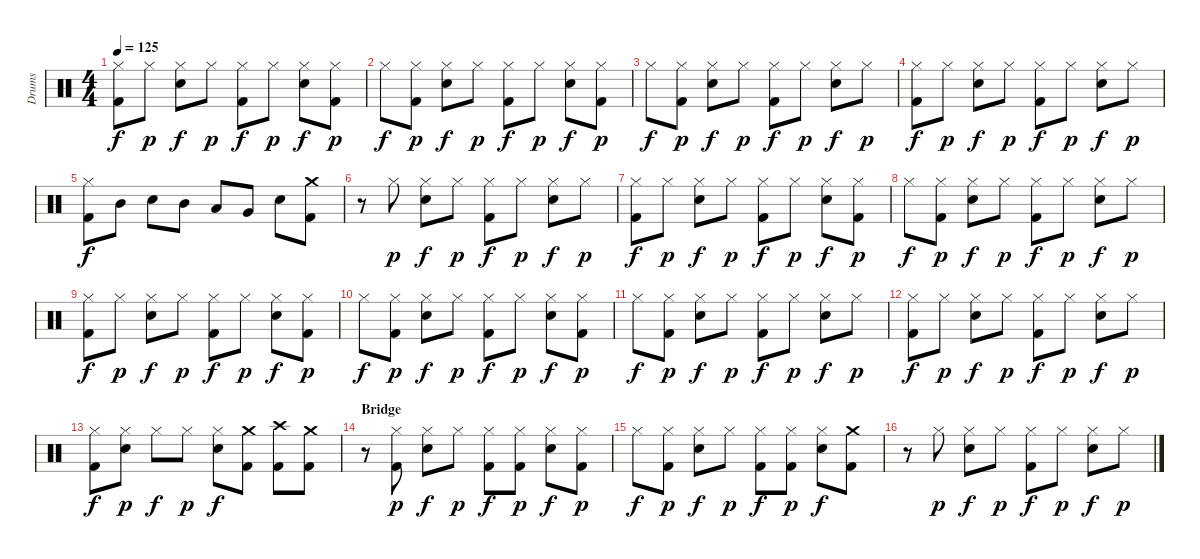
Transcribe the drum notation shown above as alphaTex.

\track ("Drums" "Drums") {instrument percussion}
\staff {score}
\articulation defaults
\ts (4 4)
\tempo 125
\clef neutral
\ks c
("Hi-Hat (closed)" "Kick (hit) 2").8{dy f} "Hi-Hat (closed)".8{dy p} ("Hi-Hat (closed)" "Snare (hit) 2").8{dy f} "Hi-Hat (closed)".8{dy p} ("Hi-Hat (closed)" "Kick (hit) 2").8{dy f} "Hi-Hat (closed)".8{dy p} ("Hi-Hat (closed)" "Snare (hit) 2").8{dy f} ("Hi-Hat (closed)" "Kick (hit) 2").8{dy p} |
"Hi-Hat (closed)".8{dy f} ("Hi-Hat (closed)" "Kick (hit) 2").8{dy p} ("Hi-Hat (closed)" "Snare (hit) 2").8{dy f} "Hi-Hat (closed)".8{dy p} ("Hi-Hat (closed)" "Kick (hit) 2").8{dy f} "Hi-Hat (closed)".8{dy p} ("Hi-Hat (closed)" "Snare (hit) 2").8{dy f} ("Hi-Hat (closed)" "Kick (hit) 2").8{dy p} |
"Hi-Hat (closed)".8{dy f} ("Hi-Hat (closed)" "Kick (hit) 2").8{dy p} ("Hi-Hat (closed)" "Snare (hit) 2").8{dy f} "Hi-Hat (closed)".8{dy p} ("Hi-Hat (closed)" "Kick (hit) 2").8{dy f} "Hi-Hat (closed)".8{dy p} ("Hi-Hat (closed)" "Snare (hit) 2").8{dy f} "Hi-Hat (closed)".8{dy p} |
("Hi-Hat (closed)" "Kick (hit) 2").8{dy f} "Hi-Hat (closed)".8{dy p} ("Hi-Hat (closed)" "Snare (hit) 2").8{dy f} "Hi-Hat (closed)".8{dy p} ("Hi-Hat (closed)" "Kick (hit) 2").8{dy f} "Hi-Hat (closed)".8{dy p} ("Hi-Hat (closed)" "Snare (hit) 2").8{dy f} "Hi-Hat (closed)".8{dy p} |
("Hi-Hat (closed)" "Kick (hit) 2").8{dy f} "Mid Tom (hit)".8 "Snare (hit) 2".8 "Mid Tom (hit)".8 "Low Tom (hit)".8 "Very Low Tom (hit)".8 "Snare (hit) 2".8 ("Crash medium (hit)" "Kick (hit) 2").8 |
r.8 "Hi-Hat (closed)".8{dy p} ("Hi-Hat (closed)" "Snare (hit) 2").8{dy f} "Hi-Hat (closed)".8{dy p} ("Hi-Hat (closed)" "Kick (hit) 2").8{dy f} "Hi-Hat (closed)".8{dy p} ("Hi-Hat (closed)" "Snare (hit) 2").8{dy f} "Hi-Hat (closed)".8{dy p} |
("Hi-Hat (closed)" "Kick (hit) 2").8{dy f} "Hi-Hat (closed)".8{dy p} ("Hi-Hat (closed)" "Snare (hit) 2").8{dy f} "Hi-Hat (closed)".8{dy p} ("Hi-Hat (closed)" "Kick (hit) 2").8{dy f} "Hi-Hat (closed)".8{dy p} ("Hi-Hat (closed)" "Snare (hit) 2").8{dy f} ("Hi-Hat (closed)" "Kick (hit) 2").8{dy p} |
"Hi-Hat (closed)".8{dy f} ("Hi-Hat (closed)" "Kick (hit) 2").8{dy p} ("Hi-Hat (closed)" "Snare (hit) 2").8{dy f} "Hi-Hat (closed)".8{dy p} ("Hi-Hat (closed)" "Kick (hit) 2").8{dy f} "Hi-Hat (closed)".8{dy p} ("Hi-Hat (closed)" "Snare (hit) 2").8{dy f} "Hi-Hat (closed)".8{dy p} |
("Hi-Hat (closed)" "Kick (hit) 2").8{dy f} "Hi-Hat (closed)".8{dy p} ("Hi-Hat (closed)" "Snare (hit) 2").8{dy f} "Hi-Hat (closed)".8{dy p} ("Hi-Hat (closed)" "Kick (hit) 2").8{dy f} "Hi-Hat (closed)".8{dy p} ("Hi-Hat (closed)" "Snare (hit) 2").8{dy f} ("Hi-Hat (closed)" "Kick (hit) 2").8{dy p} |
"Hi-Hat (closed)".8{dy f} ("Hi-Hat (closed)" "Kick (hit) 2").8{dy p} ("Hi-Hat (closed)" "Snare (hit) 2").8{dy f} "Hi-Hat (closed)".8{dy p} ("Hi-Hat (closed)" "Kick (hit) 2").8{dy f} "Hi-Hat (closed)".8{dy p} ("Hi-Hat (closed)" "Snare (hit) 2").8{dy f} ("Hi-Hat (closed)" "Kick (hit) 2").8{dy p} |
"Hi-Hat (closed)".8{dy f} ("Hi-Hat (closed)" "Kick (hit) 2").8{dy p} ("Hi-Hat (closed)" "Snare (hit) 2").8{dy f} "Hi-Hat (closed)".8{dy p} ("Hi-Hat (closed)" "Kick (hit) 2").8{dy f} "Hi-Hat (closed)".8{dy p} ("Hi-Hat (closed)" "Snare (hit) 2").8{dy f} "Hi-Hat (closed)".8{dy p} |
("Hi-Hat (closed)" "Kick (hit) 2").8{dy f} "Hi-Hat (closed)".8{dy p} ("Hi-Hat (closed)" "Snare (hit) 2").8{dy f} "Hi-Hat (closed)".8{dy p} ("Hi-Hat (closed)" "Kick (hit) 2").8{dy f} "Hi-Hat (closed)".8{dy p} ("Hi-Hat (closed)" "Snare (hit) 2").8{dy f} "Hi-Hat (closed)".8{dy p} |
("Hi-Hat (closed)" "Kick (hit) 2").8{dy f} ("Hi-Hat (closed)" "Snare (hit) 2").8{dy p} "Hi-Hat (closed)".8{dy f} "Hi-Hat (closed)".8{dy p} ("Hi-Hat (closed)" "Snare (hit) 2").8{dy f} ("Crash medium (hit)" "Kick (hit) 2").8 ("Crash high (hit)" "Kick (hit) 2").8 ("Crash medium (hit)" "Kick (hit) 2").8 |
\section ("" "Bridge")
r.8 ("Hi-Hat (closed)" "Kick (hit) 2").8{dy p} ("Hi-Hat (closed)" "Snare (hit) 2").8{dy f} "Hi-Hat (closed)".8{dy p} ("Hi-Hat (closed)" "Kick (hit) 2").8{dy f} ("Hi-Hat (closed)" "Kick (hit) 2").8{dy p} ("Hi-Hat (closed)" "Snare (hit) 2").8{dy f} ("Hi-Hat (closed)" "Kick (hit) 2").8{dy p} |
"Hi-Hat (closed)".8{dy f} ("Hi-Hat (closed)" "Kick (hit) 2").8{dy p} ("Hi-Hat (closed)" "Snare (hit) 2").8{dy f} "Hi-Hat (closed)".8{dy p} ("Hi-Hat (closed)" "Kick (hit) 2").8{dy f} ("Hi-Hat (closed)" "Kick (hit) 2").8{dy p} ("Hi-Hat (closed)" "Snare (hit) 2").8{dy f} ("Crash medium (hit)" "Kick (hit) 2").8 |
r.8 "Hi-Hat (closed)".8{dy p} ("Hi-Hat (closed)" "Snare (hit) 2").8{dy f} "Hi-Hat (closed)".8{dy p} ("Hi-Hat (closed)" "Kick (hit) 2").8{dy f} "Hi-Hat (closed)".8{dy p} ("Hi-Hat (closed)" "Snare (hit) 2").8{dy f} "Hi-Hat (closed)".8{dy p}
